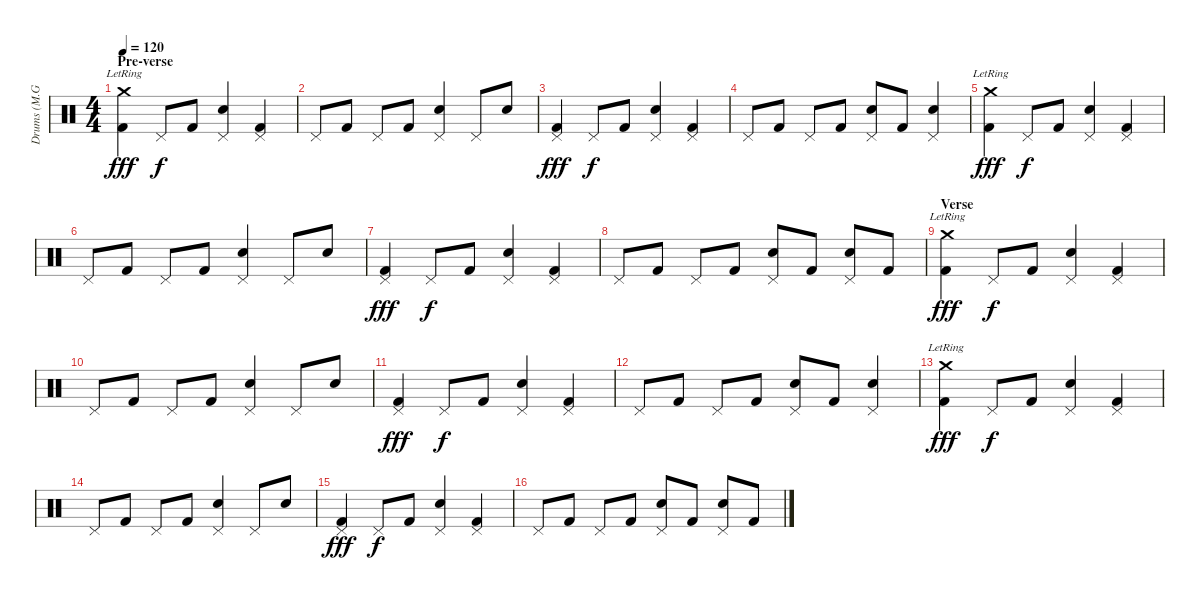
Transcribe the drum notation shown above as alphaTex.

\track ("Drums (M.Grosskopf)" "Drums (M.G") {instrument percussion}
\staff {score}
\articulation defaults
\ts (4 4)
\section ("" "Pre-verse")
\tempo 120
\clef neutral
\ks c
("Crash medium (hit)"{lr} "Kick (hit) 2").4{dy fff} "Pedal Hi-Hat (hit)".8{dy f} "Kick (hit) 2".8 ("Pedal Hi-Hat (hit)" "Electric Snare (hit)").4 ("Pedal Hi-Hat (hit)" "Kick (hit) 2").4 |
"Pedal Hi-Hat (hit)".8 "Kick (hit) 2".8 "Pedal Hi-Hat (hit)".8 "Kick (hit) 2".8 ("Pedal Hi-Hat (hit)" "Electric Snare (hit)").4 "Pedal Hi-Hat (hit)".8 "Electric Snare (hit)".8 |
("Pedal Hi-Hat (hit)" "Kick (hit) 2").4{dy fff} "Pedal Hi-Hat (hit)".8{dy f} "Kick (hit) 2".8 ("Pedal Hi-Hat (hit)" "Electric Snare (hit)").4 ("Pedal Hi-Hat (hit)" "Kick (hit) 2").4 |
"Pedal Hi-Hat (hit)".8 "Kick (hit) 2".8 "Pedal Hi-Hat (hit)".8 "Kick (hit) 2".8 ("Pedal Hi-Hat (hit)" "Electric Snare (hit)").8 "Kick (hit) 2".8 ("Pedal Hi-Hat (hit)" "Electric Snare (hit)").4 |
("Crash medium (hit)"{lr} "Kick (hit) 2").4{dy fff} "Pedal Hi-Hat (hit)".8{dy f} "Kick (hit) 2".8 ("Pedal Hi-Hat (hit)" "Electric Snare (hit)").4 ("Pedal Hi-Hat (hit)" "Kick (hit) 2").4 |
"Pedal Hi-Hat (hit)".8 "Kick (hit) 2".8 "Pedal Hi-Hat (hit)".8 "Kick (hit) 2".8 ("Pedal Hi-Hat (hit)" "Electric Snare (hit)").4 "Pedal Hi-Hat (hit)".8 "Electric Snare (hit)".8 |
("Pedal Hi-Hat (hit)" "Kick (hit) 2").4{dy fff} "Pedal Hi-Hat (hit)".8{dy f} "Kick (hit) 2".8 ("Pedal Hi-Hat (hit)" "Electric Snare (hit)").4 ("Pedal Hi-Hat (hit)" "Kick (hit) 2").4 |
"Pedal Hi-Hat (hit)".8 "Kick (hit) 2".8 "Pedal Hi-Hat (hit)".8 "Kick (hit) 2".8 ("Pedal Hi-Hat (hit)" "Electric Snare (hit)").8 "Kick (hit) 2".8 ("Pedal Hi-Hat (hit)" "Electric Snare (hit)").8 "Kick (hit) 2".8 |
\section ("" "Verse")
("Crash medium (hit)"{lr} "Kick (hit) 2").4{dy fff} "Pedal Hi-Hat (hit)".8{dy f} "Kick (hit) 2".8 ("Pedal Hi-Hat (hit)" "Electric Snare (hit)").4 ("Pedal Hi-Hat (hit)" "Kick (hit) 2").4 |
"Pedal Hi-Hat (hit)".8 "Kick (hit) 2".8 "Pedal Hi-Hat (hit)".8 "Kick (hit) 2".8 ("Pedal Hi-Hat (hit)" "Electric Snare (hit)").4 "Pedal Hi-Hat (hit)".8 "Electric Snare (hit)".8 |
("Pedal Hi-Hat (hit)" "Kick (hit) 2").4{dy fff} "Pedal Hi-Hat (hit)".8{dy f} "Kick (hit) 2".8 ("Pedal Hi-Hat (hit)" "Electric Snare (hit)").4 ("Pedal Hi-Hat (hit)" "Kick (hit) 2").4 |
"Pedal Hi-Hat (hit)".8 "Kick (hit) 2".8 "Pedal Hi-Hat (hit)".8 "Kick (hit) 2".8 ("Pedal Hi-Hat (hit)" "Electric Snare (hit)").8 "Kick (hit) 2".8 ("Pedal Hi-Hat (hit)" "Electric Snare (hit)").4 |
("Crash medium (hit)"{lr} "Kick (hit) 2").4{dy fff} "Pedal Hi-Hat (hit)".8{dy f} "Kick (hit) 2".8 ("Pedal Hi-Hat (hit)" "Electric Snare (hit)").4 ("Pedal Hi-Hat (hit)" "Kick (hit) 2").4 |
"Pedal Hi-Hat (hit)".8 "Kick (hit) 2".8 "Pedal Hi-Hat (hit)".8 "Kick (hit) 2".8 ("Pedal Hi-Hat (hit)" "Electric Snare (hit)").4 "Pedal Hi-Hat (hit)".8 "Electric Snare (hit)".8 |
("Pedal Hi-Hat (hit)" "Kick (hit) 2").4{dy fff} "Pedal Hi-Hat (hit)".8{dy f} "Kick (hit) 2".8 ("Pedal Hi-Hat (hit)" "Electric Snare (hit)").4 ("Pedal Hi-Hat (hit)" "Kick (hit) 2").4 |
"Pedal Hi-Hat (hit)".8 "Kick (hit) 2".8 "Pedal Hi-Hat (hit)".8 "Kick (hit) 2".8 ("Pedal Hi-Hat (hit)" "Electric Snare (hit)").8 "Kick (hit) 2".8 ("Pedal Hi-Hat (hit)" "Electric Snare (hit)").8 "Kick (hit) 2".8
